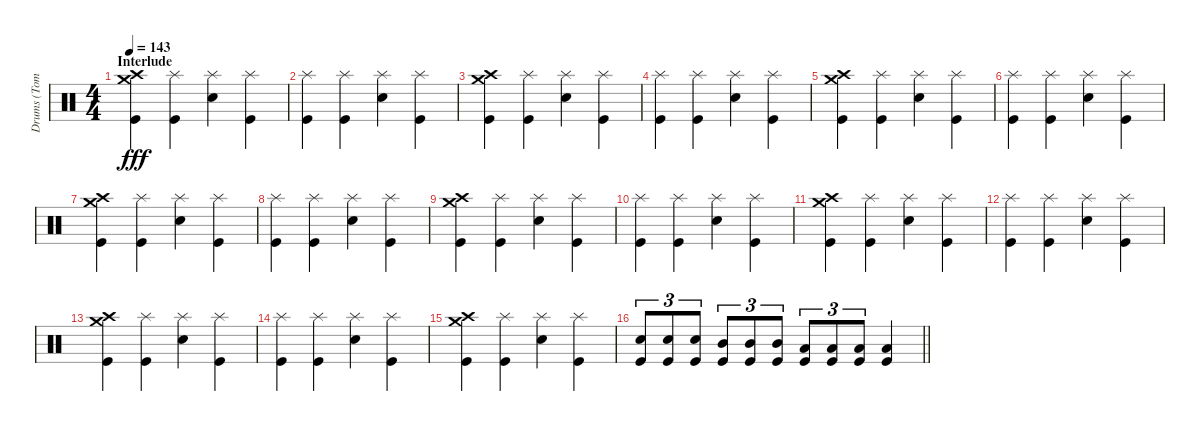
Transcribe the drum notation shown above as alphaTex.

\track ("Drums (Tommy Clufetos)" "Drums (Tom") {instrument percussion}
\staff {score}
\articulation defaults
\ts (4 4)
\section ("" "Interlude")
\tempo 143
\clef neutral
\ks c
("Crash high (hit)" "Crash medium (hit)" "Kick (hit)").4{dy fff} ("Splash (hit)" "Kick (hit)").4 ("Splash (hit)" "Electric Snare (hit)").4 ("Splash (hit)" "Kick (hit)").4 |
("Splash (hit)" "Kick (hit)").4 ("Splash (hit)" "Kick (hit)").4 ("Splash (hit)" "Electric Snare (hit)").4 ("Splash (hit)" "Kick (hit)").4 |
("Crash high (hit)" "Crash medium (hit)" "Kick (hit)").4 ("Splash (hit)" "Kick (hit)").4 ("Splash (hit)" "Electric Snare (hit)").4 ("Splash (hit)" "Kick (hit)").4 |
("Splash (hit)" "Kick (hit)").4 ("Splash (hit)" "Kick (hit)").4 ("Splash (hit)" "Electric Snare (hit)").4 ("Splash (hit)" "Kick (hit)").4 |
("Crash high (hit)" "Crash medium (hit)" "Kick (hit)").4 ("Splash (hit)" "Kick (hit)").4 ("Splash (hit)" "Electric Snare (hit)").4 ("Splash (hit)" "Kick (hit)").4 |
("Splash (hit)" "Kick (hit)").4 ("Splash (hit)" "Kick (hit)").4 ("Splash (hit)" "Electric Snare (hit)").4 ("Splash (hit)" "Kick (hit)").4 |
("Crash high (hit)" "Crash medium (hit)" "Kick (hit)").4 ("Splash (hit)" "Kick (hit)").4 ("Splash (hit)" "Electric Snare (hit)").4 ("Splash (hit)" "Kick (hit)").4 |
("Splash (hit)" "Kick (hit)").4 ("Splash (hit)" "Kick (hit)").4 ("Splash (hit)" "Electric Snare (hit)").4 ("Splash (hit)" "Kick (hit)").4 |
("Crash high (hit)" "Crash medium (hit)" "Kick (hit)").4 ("Splash (hit)" "Kick (hit)").4 ("Splash (hit)" "Electric Snare (hit)").4 ("Splash (hit)" "Kick (hit)").4 |
("Splash (hit)" "Kick (hit)").4 ("Splash (hit)" "Kick (hit)").4 ("Splash (hit)" "Electric Snare (hit)").4 ("Splash (hit)" "Kick (hit)").4 |
("Crash high (hit)" "Crash medium (hit)" "Kick (hit)").4 ("Splash (hit)" "Kick (hit)").4 ("Splash (hit)" "Electric Snare (hit)").4 ("Splash (hit)" "Kick (hit)").4 |
("Splash (hit)" "Kick (hit)").4 ("Splash (hit)" "Kick (hit)").4 ("Splash (hit)" "Electric Snare (hit)").4 ("Splash (hit)" "Kick (hit)").4 |
("Crash high (hit)" "Crash medium (hit)" "Kick (hit)").4 ("Splash (hit)" "Kick (hit)").4 ("Splash (hit)" "Electric Snare (hit)").4 ("Splash (hit)" "Kick (hit)").4 |
("Splash (hit)" "Kick (hit)").4 ("Splash (hit)" "Kick (hit)").4 ("Splash (hit)" "Electric Snare (hit)").4 ("Splash (hit)" "Kick (hit)").4 |
("Crash high (hit)" "Crash medium (hit)" "Kick (hit)").4 ("Splash (hit)" "Kick (hit)").4 ("Splash (hit)" "Electric Snare (hit)").4 ("Splash (hit)" "Kick (hit)").4 |
\barLineRight lightlight
("Electric Snare (hit)" "Kick (hit)").8{tu (3 2)} ("Electric Snare (hit)" "Kick (hit)").8{tu (3 2)} ("Electric Snare (hit)" "Kick (hit)").8{tu (3 2)} ("Mid Tom (hit)" "Kick (hit)").8{tu (3 2)} ("Mid Tom (hit)" "Kick (hit)").8{tu (3 2)} ("Mid Tom (hit)" "Kick (hit)").8{tu (3 2)} ("Low Tom (hit)" "Kick (hit)").8{tu (3 2)} ("Low Tom (hit)" "Kick (hit)").8{tu (3 2)} ("Low Tom (hit)" "Kick (hit)").8{tu (3 2)} ("Low Floor Tom (hit)" "Kick (hit)").4
